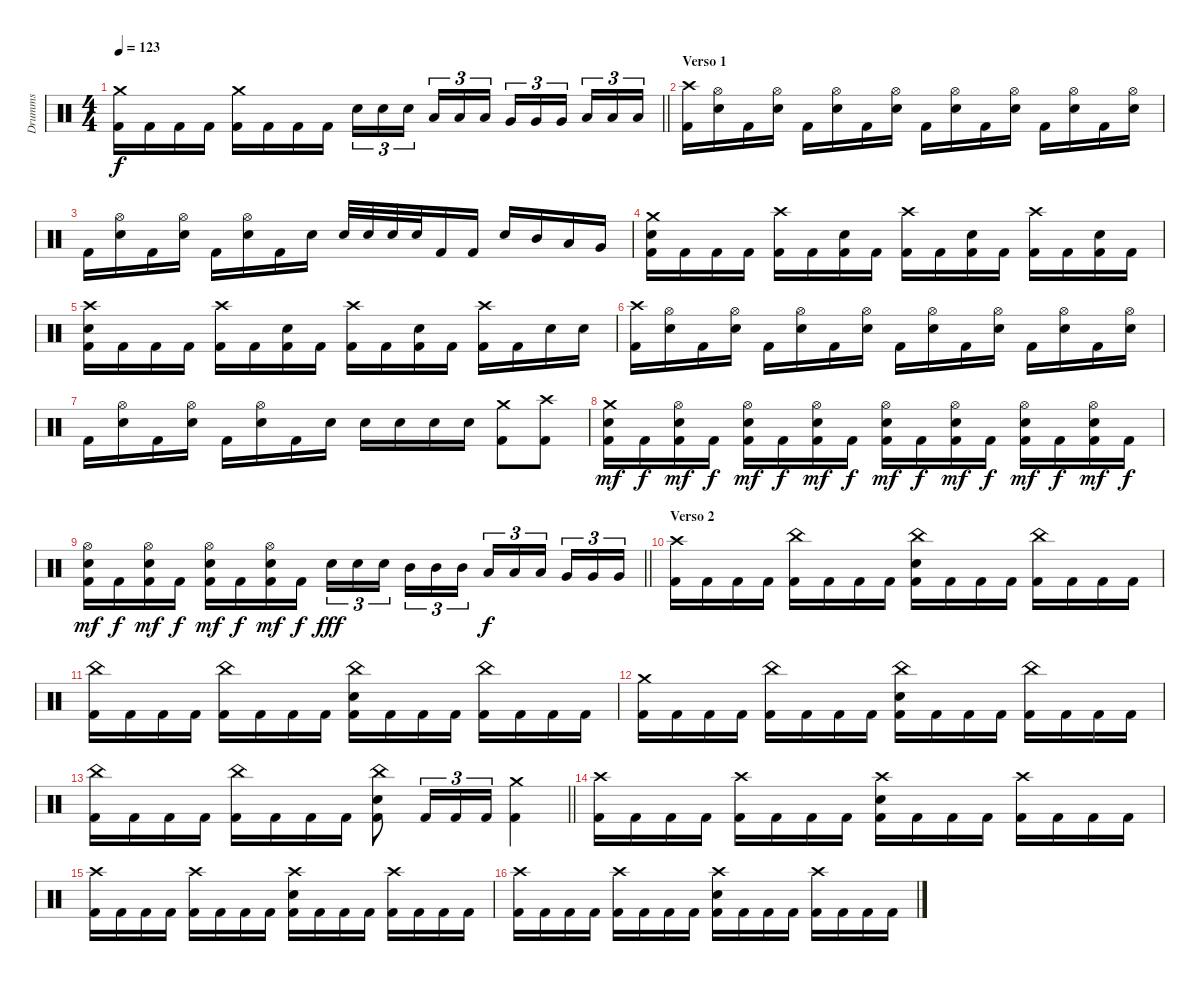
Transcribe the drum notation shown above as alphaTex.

\track ("Drumms" "Drumms") {instrument percussion}
\staff {score}
\articulation defaults
\ts (4 4)
\tempo 123
\clef neutral
\barLineRight lightlight
\ks aminor
("Crash medium (hit)" "Kick (hit) 2").16{dy f} "Kick (hit) 2".16 "Kick (hit) 2".16 "Kick (hit) 2".16 ("Crash medium (hit)" "Kick (hit) 2").16 "Kick (hit) 2".16 "Kick (hit) 2".16 "Kick (hit) 2".16 "Electric Snare (hit)".16{tu (3 2)} "Electric Snare (hit)".16{tu (3 2)} "Electric Snare (hit)".16{tu (3 2) beam splitsecondary} "Low Tom (hit)".16{tu (3 2)} "Low Tom (hit)".16{tu (3 2)} "Low Tom (hit)".16{tu (3 2)} "Very Low Tom (hit)".16{tu (3 2)} "Very Low Tom (hit)".16{tu (3 2)} "Very Low Tom (hit)".16{tu (3 2) beam splitsecondary} "Low Floor Tom (hit)".16{tu (3 2)} "Low Floor Tom (hit)".16{tu (3 2)} "Low Floor Tom (hit)".16{tu (3 2)} |
\section ("" "Verso 1")
("Crash high (hit)" "Kick (hit) 2").16 ("Hi-Hat (open)" "Electric Snare (hit)").16 "Kick (hit) 2".16 ("Hi-Hat (open)" "Electric Snare (hit)").16 "Kick (hit) 2".16 ("Hi-Hat (open)" "Electric Snare (hit)").16 "Kick (hit) 2".16 ("Hi-Hat (open)" "Electric Snare (hit)").16 "Kick (hit) 2".16 ("Hi-Hat (open)" "Electric Snare (hit)").16 "Kick (hit) 2".16 ("Hi-Hat (open)" "Electric Snare (hit)").16 "Kick (hit) 2".16 ("Hi-Hat (open)" "Electric Snare (hit)").16 "Kick (hit) 2".16 ("Hi-Hat (open)" "Electric Snare (hit)").16 |
"Kick (hit) 2".16 ("Hi-Hat (open)" "Electric Snare (hit)").16 "Kick (hit) 2".16 ("Hi-Hat (open)" "Electric Snare (hit)").16 "Kick (hit) 2".16 ("Hi-Hat (open)" "Electric Snare (hit)").16 "Kick (hit) 2".16 "Electric Snare (hit)".16 "Electric Snare (hit)".32 "Electric Snare (hit)".32 "Electric Snare (hit)".32 "Electric Snare (hit)".32 "Kick (hit) 2".16 "Kick (hit) 2".16 "Electric Snare (hit)".16 "Mid Tom (hit)".16 "Low Tom (hit)".16 "Very Low Tom (hit)".16 |
("Crash medium (hit)" "Electric Snare (hit)" "Kick (hit) 2").16 "Kick (hit) 2".16 "Kick (hit) 2".16 "Kick (hit) 2".16 ("Crash high (hit)" "Kick (hit) 2").16 "Kick (hit) 2".16 ("Electric Snare (hit)" "Kick (hit) 2").16 "Kick (hit) 2".16 ("Crash high (hit)" "Kick (hit) 2").16 "Kick (hit) 2".16 ("Electric Snare (hit)" "Kick (hit) 2").16 "Kick (hit) 2".16 ("Crash high (hit)" "Kick (hit) 2").16 "Kick (hit) 2".16 ("Electric Snare (hit)" "Kick (hit) 2").16 "Kick (hit) 2".16 |
("Crash high (hit)" "Electric Snare (hit)" "Kick (hit) 2").16 "Kick (hit) 2".16 "Kick (hit) 2".16 "Kick (hit) 2".16 ("Crash high (hit)" "Kick (hit) 2").16 "Kick (hit) 2".16 ("Electric Snare (hit)" "Kick (hit) 2").16 "Kick (hit) 2".16 ("Crash high (hit)" "Kick (hit) 2").16 "Kick (hit) 2".16 ("Electric Snare (hit)" "Kick (hit) 2").16 "Kick (hit) 2".16 ("Crash high (hit)" "Kick (hit) 2").16 "Kick (hit) 2".16 "Electric Snare (hit)".16 "Electric Snare (hit)".16 |
("Crash high (hit)" "Kick (hit) 2").16 ("Hi-Hat (open)" "Electric Snare (hit)").16 "Kick (hit) 2".16 ("Hi-Hat (open)" "Electric Snare (hit)").16 "Kick (hit) 2".16 ("Hi-Hat (open)" "Electric Snare (hit)").16 "Kick (hit) 2".16 ("Hi-Hat (open)" "Electric Snare (hit)").16 "Kick (hit) 2".16 ("Hi-Hat (open)" "Electric Snare (hit)").16 "Kick (hit) 2".16 ("Hi-Hat (open)" "Electric Snare (hit)").16 "Kick (hit) 2".16 ("Hi-Hat (open)" "Electric Snare (hit)").16 "Kick (hit) 2".16 ("Hi-Hat (open)" "Electric Snare (hit)").16 |
"Kick (hit) 2".16 ("Hi-Hat (open)" "Electric Snare (hit)").16 "Kick (hit) 2".16 ("Hi-Hat (open)" "Electric Snare (hit)").16 "Kick (hit) 2".16 ("Hi-Hat (open)" "Electric Snare (hit)").16 "Kick (hit) 2".16 "Electric Snare (hit)".16 "Electric Snare (hit)".16 "Electric Snare (hit)".16 "Electric Snare (hit)".16 "Electric Snare (hit)".16 ("Crash medium (hit)" "Kick (hit) 2").8 ("Crash high (hit)" "Kick (hit) 2").8 |
("Crash medium (hit)" "Electric Snare (hit)" "Kick (hit) 2").16{dy mf} "Kick (hit) 2".16{dy f} ("Hi-Hat (open)" "Electric Snare (hit)" "Kick (hit) 2").16{dy mf} "Kick (hit) 2".16{dy f} ("Hi-Hat (open)" "Electric Snare (hit)" "Kick (hit) 2").16{dy mf} "Kick (hit) 2".16{dy f} ("Hi-Hat (open)" "Electric Snare (hit)" "Kick (hit) 2").16{dy mf} "Kick (hit) 2".16{dy f} ("Hi-Hat (open)" "Electric Snare (hit)" "Kick (hit) 2").16{dy mf} "Kick (hit) 2".16{dy f} ("Hi-Hat (open)" "Electric Snare (hit)" "Kick (hit) 2").16{dy mf} "Kick (hit) 2".16{dy f} ("Hi-Hat (open)" "Electric Snare (hit)" "Kick (hit) 2").16{dy mf} "Kick (hit) 2".16{dy f} ("Hi-Hat (open)" "Electric Snare (hit)" "Kick (hit) 2").16{dy mf} "Kick (hit) 2".16{dy f} |
\barLineRight lightlight
("Hi-Hat (open)" "Electric Snare (hit)" "Kick (hit) 2").16{dy mf} "Kick (hit) 2".16{dy f} ("Hi-Hat (open)" "Electric Snare (hit)" "Kick (hit) 2").16{dy mf} "Kick (hit) 2".16{dy f} ("Hi-Hat (open)" "Electric Snare (hit)" "Kick (hit) 2").16{dy mf} "Kick (hit) 2".16{dy f} ("Hi-Hat (open)" "Electric Snare (hit)" "Kick (hit) 2").16{dy mf} "Kick (hit) 2".16{dy f} "Electric Snare (hit)".16{tu (3 2) dy fff} "Electric Snare (hit)".16{tu (3 2)} "Electric Snare (hit)".16{tu (3 2) beam splitsecondary} "Mid Tom (hit)".16{tu (3 2)} "Mid Tom (hit)".16{tu (3 2)} "Mid Tom (hit)".16{tu (3 2)} "Low Tom (hit)".16{tu (3 2) dy f} "Low Tom (hit)".16{tu (3 2)} "Low Tom (hit)".16{tu (3 2) beam splitsecondary} "Very Low Tom (hit)".16{tu (3 2)} "Very Low Tom (hit)".16{tu (3 2)} "Very Low Tom (hit)".16{tu (3 2)} |
\section ("" "Verso 2")
("Crash high (hit)" "Kick (hit) 2").16 "Kick (hit) 2".16 "Kick (hit) 2".16 "Kick (hit) 2".16 ("China (hit)" "Kick (hit) 2").16 "Kick (hit) 2".16 "Kick (hit) 2".16 "Kick (hit) 2".16 ("China (hit)" "Electric Snare (hit)" "Kick (hit) 2").16 "Kick (hit) 2".16 "Kick (hit) 2".16 "Kick (hit) 2".16 ("China (hit)" "Kick (hit) 2").16 "Kick (hit) 2".16 "Kick (hit) 2".16 "Kick (hit) 2".16 |
("China (hit)" "Kick (hit) 2").16 "Kick (hit) 2".16 "Kick (hit) 2".16 "Kick (hit) 2".16 ("China (hit)" "Kick (hit) 2").16 "Kick (hit) 2".16 "Kick (hit) 2".16 "Kick (hit) 2".16 ("China (hit)" "Electric Snare (hit)" "Kick (hit) 2").16 "Kick (hit) 2".16 "Kick (hit) 2".16 "Kick (hit) 2".16 ("China (hit)" "Kick (hit) 2").16 "Kick (hit) 2".16 "Kick (hit) 2".16 "Kick (hit) 2".16 |
("Crash medium (hit)" "Kick (hit) 2").16 "Kick (hit) 2".16 "Kick (hit) 2".16 "Kick (hit) 2".16 ("China (hit)" "Kick (hit) 2").16 "Kick (hit) 2".16 "Kick (hit) 2".16 "Kick (hit) 2".16 ("China (hit)" "Electric Snare (hit)" "Kick (hit) 2").16 "Kick (hit) 2".16 "Kick (hit) 2".16 "Kick (hit) 2".16 ("China (hit)" "Kick (hit) 2").16 "Kick (hit) 2".16 "Kick (hit) 2".16 "Kick (hit) 2".16 |
\barLineRight lightlight
("China (hit)" "Kick (hit) 2").16 "Kick (hit) 2".16 "Kick (hit) 2".16 "Kick (hit) 2".16 ("China (hit)" "Kick (hit) 2").16 "Kick (hit) 2".16 "Kick (hit) 2".16 "Kick (hit) 2".16 ("China (hit)" "Electric Snare (hit)" "Kick (hit) 2").8 "Kick (hit) 2".16{tu (3 2)} "Kick (hit) 2".16{tu (3 2)} "Kick (hit) 2".16{tu (3 2)} ("Crash medium (hit)" "Kick (hit) 2").4 |
("Crash high (hit)" "Kick (hit) 2").16 "Kick (hit) 2".16 "Kick (hit) 2".16 "Kick (hit) 2".16 ("Crash high (hit)" "Kick (hit) 2").16 "Kick (hit) 2".16 "Kick (hit) 2".16 "Kick (hit) 2".16 ("Crash high (hit)" "Electric Snare (hit)" "Kick (hit) 2").16 "Kick (hit) 2".16 "Kick (hit) 2".16 "Kick (hit) 2".16 ("Crash high (hit)" "Kick (hit) 2").16 "Kick (hit) 2".16 "Kick (hit) 2".16 "Kick (hit) 2".16 |
("Crash high (hit)" "Kick (hit) 2").16 "Kick (hit) 2".16 "Kick (hit) 2".16 "Kick (hit) 2".16 ("Crash high (hit)" "Kick (hit) 2").16 "Kick (hit) 2".16 "Kick (hit) 2".16 "Kick (hit) 2".16 ("Crash high (hit)" "Electric Snare (hit)" "Kick (hit) 2").16 "Kick (hit) 2".16 "Kick (hit) 2".16 "Kick (hit) 2".16 ("Crash high (hit)" "Kick (hit) 2").16 "Kick (hit) 2".16 "Kick (hit) 2".16 "Kick (hit) 2".16 |
("Crash high (hit)" "Kick (hit) 2").16 "Kick (hit) 2".16 "Kick (hit) 2".16 "Kick (hit) 2".16 ("Crash high (hit)" "Kick (hit) 2").16 "Kick (hit) 2".16 "Kick (hit) 2".16 "Kick (hit) 2".16 ("Crash high (hit)" "Electric Snare (hit)" "Kick (hit) 2").16 "Kick (hit) 2".16 "Kick (hit) 2".16 "Kick (hit) 2".16 ("Crash high (hit)" "Kick (hit) 2").16 "Kick (hit) 2".16 "Kick (hit) 2".16 "Kick (hit) 2".16
